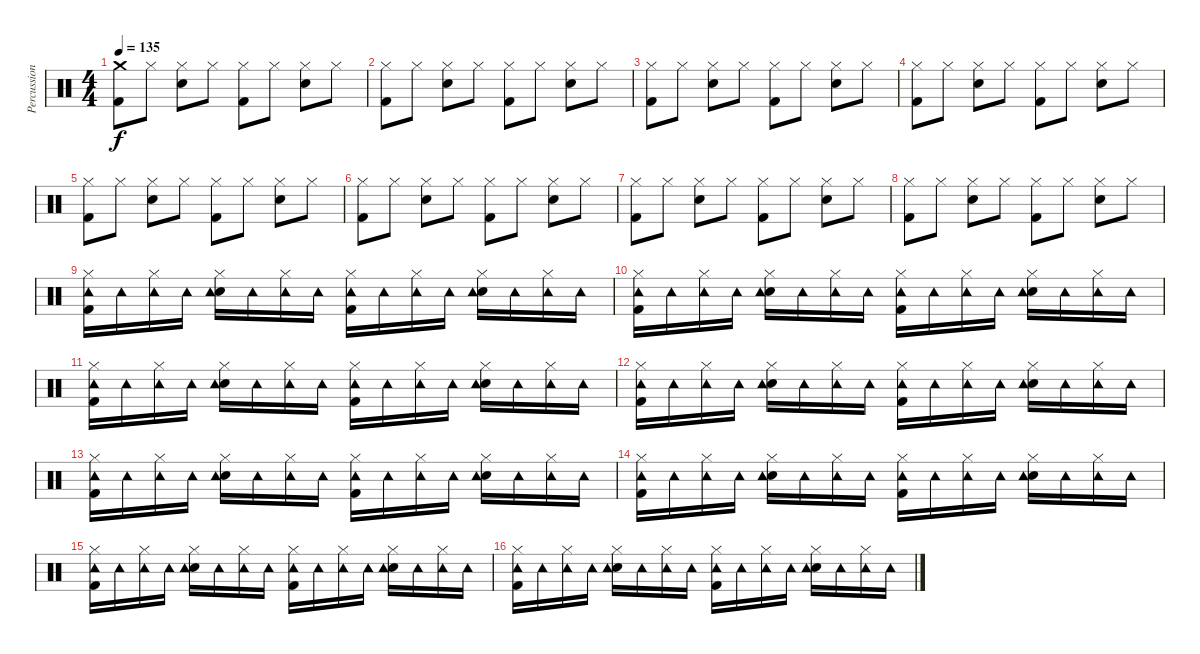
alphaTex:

\track ("Percussion" "Percussion") {instrument percussion}
\staff {score}
\articulation defaults
\ts (4 4)
\tempo 135
\clef neutral
\ks c
("Crash medium (hit)" "Kick (hit) 2").8{dy f} "Hi-Hat (closed)".8 ("Hi-Hat (closed)" "Snare (hit) 2").8 "Hi-Hat (closed)".8 ("Hi-Hat (closed)" "Kick (hit) 2").8 "Hi-Hat (closed)".8 ("Hi-Hat (closed)" "Snare (hit) 2").8 "Hi-Hat (closed)".8 |
("Hi-Hat (closed)" "Kick (hit) 2").8 "Hi-Hat (closed)".8 ("Hi-Hat (closed)" "Snare (hit) 2").8 "Hi-Hat (closed)".8 ("Hi-Hat (closed)" "Kick (hit) 2").8 "Hi-Hat (closed)".8 ("Hi-Hat (closed)" "Snare (hit) 2").8 "Hi-Hat (closed)".8 |
("Hi-Hat (closed)" "Kick (hit) 2").8 "Hi-Hat (closed)".8 ("Hi-Hat (closed)" "Snare (hit) 2").8 "Hi-Hat (closed)".8 ("Hi-Hat (closed)" "Kick (hit) 2").8 "Hi-Hat (closed)".8 ("Hi-Hat (closed)" "Snare (hit) 2").8 "Hi-Hat (closed)".8 |
("Hi-Hat (closed)" "Kick (hit) 2").8 "Hi-Hat (closed)".8 ("Hi-Hat (closed)" "Snare (hit) 2").8 "Hi-Hat (closed)".8 ("Hi-Hat (closed)" "Kick (hit) 2").8 "Hi-Hat (closed)".8 ("Hi-Hat (closed)" "Snare (hit) 2").8 "Hi-Hat (closed)".8 |
("Hi-Hat (closed)" "Kick (hit) 2").8 "Hi-Hat (closed)".8 ("Hi-Hat (closed)" "Snare (hit) 2").8 "Hi-Hat (closed)".8 ("Hi-Hat (closed)" "Kick (hit) 2").8 "Hi-Hat (closed)".8 ("Hi-Hat (closed)" "Snare (hit) 2").8 "Hi-Hat (closed)".8 |
("Hi-Hat (closed)" "Kick (hit) 2").8 "Hi-Hat (closed)".8 ("Hi-Hat (closed)" "Snare (hit) 2").8 "Hi-Hat (closed)".8 ("Hi-Hat (closed)" "Kick (hit) 2").8 "Hi-Hat (closed)".8 ("Hi-Hat (closed)" "Snare (hit) 2").8 "Hi-Hat (closed)".8 |
("Hi-Hat (closed)" "Kick (hit) 2").8 "Hi-Hat (closed)".8 ("Hi-Hat (closed)" "Snare (hit) 2").8 "Hi-Hat (closed)".8 ("Hi-Hat (closed)" "Kick (hit) 2").8 "Hi-Hat (closed)".8 ("Hi-Hat (closed)" "Snare (hit) 2").8 "Hi-Hat (closed)".8 |
("Hi-Hat (closed)" "Kick (hit) 2").8 "Hi-Hat (closed)".8 ("Hi-Hat (closed)" "Snare (hit) 2").8 "Hi-Hat (closed)".8 ("Hi-Hat (closed)" "Kick (hit) 2").8 "Hi-Hat (closed)".8 ("Hi-Hat (closed)" "Snare (hit) 2").8 "Hi-Hat (closed)".8 |
("Hi-Hat (closed)" "Kick (hit) 2" "Tambourine (hit)").16 "Tambourine (hit)".16 ("Hi-Hat (closed)" "Tambourine (hit)").16 "Tambourine (hit)".16 ("Hi-Hat (closed)" "Snare (hit) 2" "Tambourine (hit)").16 "Tambourine (hit)".16 ("Hi-Hat (closed)" "Tambourine (hit)").16 "Tambourine (hit)".16 ("Hi-Hat (closed)" "Kick (hit) 2" "Tambourine (hit)").16 "Tambourine (hit)".16 ("Hi-Hat (closed)" "Tambourine (hit)").16 "Tambourine (hit)".16 ("Hi-Hat (closed)" "Snare (hit) 2" "Tambourine (hit)").16 "Tambourine (hit)".16 ("Hi-Hat (closed)" "Tambourine (hit)").16 "Tambourine (hit)".16 |
("Hi-Hat (closed)" "Kick (hit) 2" "Tambourine (hit)").16 "Tambourine (hit)".16 ("Hi-Hat (closed)" "Tambourine (hit)").16 "Tambourine (hit)".16 ("Hi-Hat (closed)" "Snare (hit) 2" "Tambourine (hit)").16 "Tambourine (hit)".16 ("Hi-Hat (closed)" "Tambourine (hit)").16 "Tambourine (hit)".16 ("Hi-Hat (closed)" "Kick (hit) 2" "Tambourine (hit)").16 "Tambourine (hit)".16 ("Hi-Hat (closed)" "Tambourine (hit)").16 "Tambourine (hit)".16 ("Hi-Hat (closed)" "Snare (hit) 2" "Tambourine (hit)").16 "Tambourine (hit)".16 ("Hi-Hat (closed)" "Tambourine (hit)").16 "Tambourine (hit)".16 |
("Hi-Hat (closed)" "Kick (hit) 2" "Tambourine (hit)").16 "Tambourine (hit)".16 ("Hi-Hat (closed)" "Tambourine (hit)").16 "Tambourine (hit)".16 ("Hi-Hat (closed)" "Snare (hit) 2" "Tambourine (hit)").16 "Tambourine (hit)".16 ("Hi-Hat (closed)" "Tambourine (hit)").16 "Tambourine (hit)".16 ("Hi-Hat (closed)" "Kick (hit) 2" "Tambourine (hit)").16 "Tambourine (hit)".16 ("Hi-Hat (closed)" "Tambourine (hit)").16 "Tambourine (hit)".16 ("Hi-Hat (closed)" "Snare (hit) 2" "Tambourine (hit)").16 "Tambourine (hit)".16 ("Hi-Hat (closed)" "Tambourine (hit)").16 "Tambourine (hit)".16 |
("Hi-Hat (closed)" "Kick (hit) 2" "Tambourine (hit)").16 "Tambourine (hit)".16 ("Hi-Hat (closed)" "Tambourine (hit)").16 "Tambourine (hit)".16 ("Hi-Hat (closed)" "Snare (hit) 2" "Tambourine (hit)").16 "Tambourine (hit)".16 ("Hi-Hat (closed)" "Tambourine (hit)").16 "Tambourine (hit)".16 ("Hi-Hat (closed)" "Kick (hit) 2" "Tambourine (hit)").16 "Tambourine (hit)".16 ("Hi-Hat (closed)" "Tambourine (hit)").16 "Tambourine (hit)".16 ("Hi-Hat (closed)" "Snare (hit) 2" "Tambourine (hit)").16 "Tambourine (hit)".16 ("Hi-Hat (closed)" "Tambourine (hit)").16 "Tambourine (hit)".16 |
("Hi-Hat (closed)" "Kick (hit) 2" "Tambourine (hit)").16 "Tambourine (hit)".16 ("Hi-Hat (closed)" "Tambourine (hit)").16 "Tambourine (hit)".16 ("Hi-Hat (closed)" "Snare (hit) 2" "Tambourine (hit)").16 "Tambourine (hit)".16 ("Hi-Hat (closed)" "Tambourine (hit)").16 "Tambourine (hit)".16 ("Hi-Hat (closed)" "Kick (hit) 2" "Tambourine (hit)").16 "Tambourine (hit)".16 ("Hi-Hat (closed)" "Tambourine (hit)").16 "Tambourine (hit)".16 ("Hi-Hat (closed)" "Snare (hit) 2" "Tambourine (hit)").16 "Tambourine (hit)".16 ("Hi-Hat (closed)" "Tambourine (hit)").16 "Tambourine (hit)".16 |
("Hi-Hat (closed)" "Kick (hit) 2" "Tambourine (hit)").16 "Tambourine (hit)".16 ("Hi-Hat (closed)" "Tambourine (hit)").16 "Tambourine (hit)".16 ("Hi-Hat (closed)" "Snare (hit) 2" "Tambourine (hit)").16 "Tambourine (hit)".16 ("Hi-Hat (closed)" "Tambourine (hit)").16 "Tambourine (hit)".16 ("Hi-Hat (closed)" "Kick (hit) 2" "Tambourine (hit)").16 "Tambourine (hit)".16 ("Hi-Hat (closed)" "Tambourine (hit)").16 "Tambourine (hit)".16 ("Hi-Hat (closed)" "Snare (hit) 2" "Tambourine (hit)").16 "Tambourine (hit)".16 ("Hi-Hat (closed)" "Tambourine (hit)").16 "Tambourine (hit)".16 |
("Hi-Hat (closed)" "Kick (hit) 2" "Tambourine (hit)").16 "Tambourine (hit)".16 ("Hi-Hat (closed)" "Tambourine (hit)").16 "Tambourine (hit)".16 ("Hi-Hat (closed)" "Snare (hit) 2" "Tambourine (hit)").16 "Tambourine (hit)".16 ("Hi-Hat (closed)" "Tambourine (hit)").16 "Tambourine (hit)".16 ("Hi-Hat (closed)" "Kick (hit) 2" "Tambourine (hit)").16 "Tambourine (hit)".16 ("Hi-Hat (closed)" "Tambourine (hit)").16 "Tambourine (hit)".16 ("Hi-Hat (closed)" "Snare (hit) 2" "Tambourine (hit)").16 "Tambourine (hit)".16 ("Hi-Hat (closed)" "Tambourine (hit)").16 "Tambourine (hit)".16 |
("Hi-Hat (closed)" "Kick (hit) 2" "Tambourine (hit)").16 "Tambourine (hit)".16 ("Hi-Hat (closed)" "Tambourine (hit)").16 "Tambourine (hit)".16 ("Hi-Hat (closed)" "Snare (hit) 2" "Tambourine (hit)").16 "Tambourine (hit)".16 ("Hi-Hat (closed)" "Tambourine (hit)").16 "Tambourine (hit)".16 ("Hi-Hat (closed)" "Kick (hit) 2" "Tambourine (hit)").16 "Tambourine (hit)".16 ("Hi-Hat (closed)" "Tambourine (hit)").16 "Tambourine (hit)".16 ("Hi-Hat (closed)" "Snare (hit) 2" "Tambourine (hit)").16 "Tambourine (hit)".16 ("Hi-Hat (closed)" "Tambourine (hit)").16 "Tambourine (hit)".16
